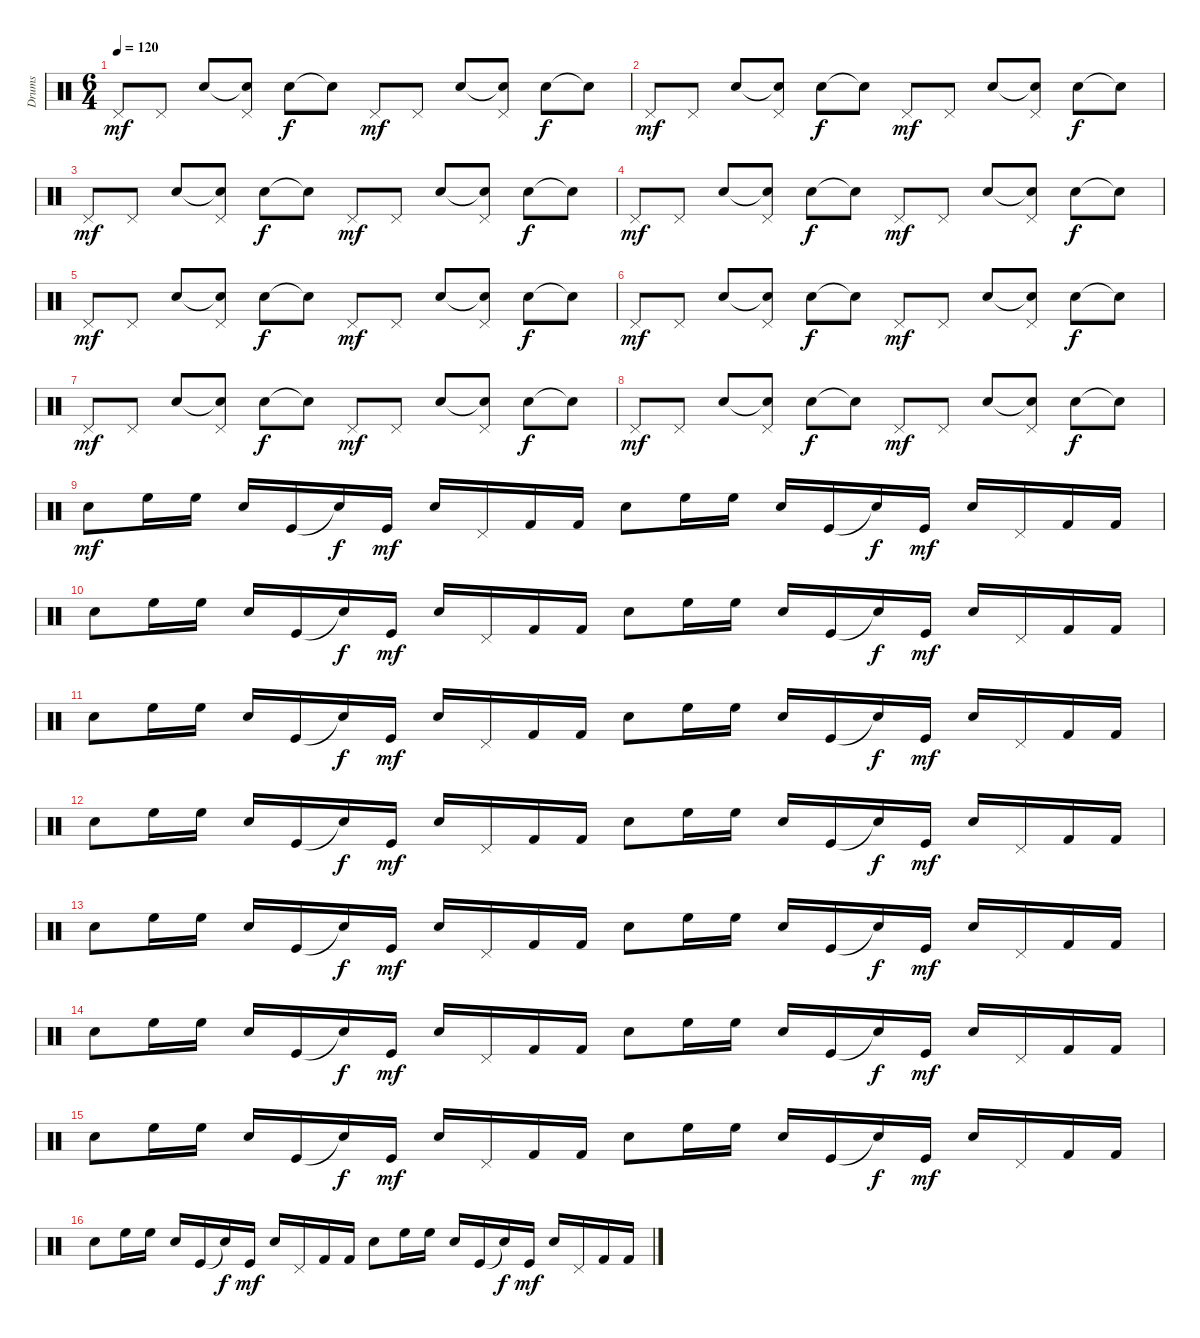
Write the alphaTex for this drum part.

\track ("Drums" "Drums") {instrument percussion}
\staff {score}
\articulation defaults
\ts (6 4)
\tempo 120
\clef neutral
\ks c "Pedal Hi-Hat (hit)".8{dy mf} "Pedal Hi-Hat (hit)".8 "Snare (hit) 2".8
("Snare (hit)"{t} "Pedal Hi-Hat (hit)").8 "Snare (hit) 2".8{dy f} "Snare (hit)"{t}.8 "Pedal Hi-Hat (hit)".8{dy mf} "Pedal Hi-Hat (hit)".8 "Snare (hit) 2".8 ("Snare (hit)"{t} "Pedal Hi-Hat (hit)").8 "Snare (hit) 2".8{dy f} "Snare (hit)"{t}.8 |
"Pedal Hi-Hat (hit)".8{dy mf} "Pedal Hi-Hat (hit)".8 "Snare (hit) 2".8 ("Snare (hit)"{t} "Pedal Hi-Hat (hit)").8 "Snare (hit) 2".8{dy f} "Snare (hit)"{t}.8 "Pedal Hi-Hat (hit)".8{dy mf} "Pedal Hi-Hat (hit)".8 "Snare (hit) 2".8 ("Snare (hit)"{t} "Pedal Hi-Hat (hit)").8 "Snare (hit) 2".8{dy f} "Snare (hit)"{t}.8 |
"Pedal Hi-Hat (hit)".8{dy mf} "Pedal Hi-Hat (hit)".8 "Snare (hit) 2".8 ("Snare (hit)"{t} "Pedal Hi-Hat (hit)").8 "Snare (hit) 2".8{dy f} "Snare (hit)"{t}.8 "Pedal Hi-Hat (hit)".8{dy mf} "Pedal Hi-Hat (hit)".8 "Snare (hit) 2".8 ("Snare (hit)"{t} "Pedal Hi-Hat (hit)").8 "Snare (hit) 2".8{dy f} "Snare (hit)"{t}.8 |
"Pedal Hi-Hat (hit)".8{dy mf} "Pedal Hi-Hat (hit)".8 "Snare (hit) 2".8 ("Snare (hit)"{t} "Pedal Hi-Hat (hit)").8 "Snare (hit) 2".8{dy f} "Snare (hit)"{t}.8 "Pedal Hi-Hat (hit)".8{dy mf} "Pedal Hi-Hat (hit)".8 "Snare (hit) 2".8 ("Snare (hit)"{t} "Pedal Hi-Hat (hit)").8 "Snare (hit) 2".8{dy f} "Snare (hit)"{t}.8 |
"Pedal Hi-Hat (hit)".8{dy mf} "Pedal Hi-Hat (hit)".8 "Snare (hit) 2".8 ("Snare (hit)"{t} "Pedal Hi-Hat (hit)").8 "Snare (hit) 2".8{dy f} "Snare (hit)"{t}.8 "Pedal Hi-Hat (hit)".8{dy mf} "Pedal Hi-Hat (hit)".8 "Snare (hit) 2".8 ("Snare (hit)"{t} "Pedal Hi-Hat (hit)").8 "Snare (hit) 2".8{dy f} "Snare (hit)"{t}.8 |
"Pedal Hi-Hat (hit)".8{dy mf} "Pedal Hi-Hat (hit)".8 "Snare (hit) 2".8 ("Snare (hit)"{t} "Pedal Hi-Hat (hit)").8 "Snare (hit) 2".8{dy f} "Snare (hit)"{t}.8 "Pedal Hi-Hat (hit)".8{dy mf} "Pedal Hi-Hat (hit)".8 "Snare (hit) 2".8 ("Snare (hit)"{t} "Pedal Hi-Hat (hit)").8 "Snare (hit) 2".8{dy f} "Snare (hit)"{t}.8 |
"Pedal Hi-Hat (hit)".8{dy mf} "Pedal Hi-Hat (hit)".8 "Snare (hit) 2".8 ("Snare (hit)"{t} "Pedal Hi-Hat (hit)").8 "Snare (hit) 2".8{dy f} "Snare (hit)"{t}.8 "Pedal Hi-Hat (hit)".8{dy mf} "Pedal Hi-Hat (hit)".8 "Snare (hit) 2".8 ("Snare (hit)"{t} "Pedal Hi-Hat (hit)").8 "Snare (hit) 2".8{dy f} "Snare (hit)"{t}.8 |
"Pedal Hi-Hat (hit)".8{dy mf} "Pedal Hi-Hat (hit)".8 "Snare (hit) 2".8 ("Snare (hit)"{t} "Pedal Hi-Hat (hit)").8 "Snare (hit) 2".8{dy f} "Snare (hit)"{t}.8 "Pedal Hi-Hat (hit)".8{dy mf} "Pedal Hi-Hat (hit)".8 "Snare (hit) 2".8 ("Snare (hit)"{t} "Pedal Hi-Hat (hit)").8 "Snare (hit) 2".8{dy f} "Snare (hit)"{t}.8 |
"Snare (hit) 2".8{dy mf} "High Floor Tom (hit)".16 "High Floor Tom (hit)".16 "Snare (hit) 2".16 "Kick (hit)".16 "Snare (hit)"{t}.16{dy f} "Kick (hit)".16{dy mf} "Snare (hit) 2".16 "Pedal Hi-Hat (hit)".16 "Kick (hit) 2".16 "Kick (hit) 2".16 "Snare (hit) 2".8 "High Floor Tom (hit)".16 "High Floor Tom (hit)".16 "Snare (hit) 2".16 "Kick (hit)".16 "Snare (hit)"{t}.16{dy f} "Kick (hit)".16{dy mf} "Snare (hit) 2".16 "Pedal Hi-Hat (hit)".16 "Kick (hit) 2".16 "Kick (hit) 2".16 |
"Snare (hit) 2".8 "High Floor Tom (hit)".16 "High Floor Tom (hit)".16 "Snare (hit) 2".16 "Kick (hit)".16 "Snare (hit)"{t}.16{dy f} "Kick (hit)".16{dy mf} "Snare (hit) 2".16 "Pedal Hi-Hat (hit)".16 "Kick (hit) 2".16 "Kick (hit) 2".16 "Snare (hit) 2".8 "High Floor Tom (hit)".16 "High Floor Tom (hit)".16 "Snare (hit) 2".16 "Kick (hit)".16 "Snare (hit)"{t}.16{dy f} "Kick (hit)".16{dy mf} "Snare (hit) 2".16 "Pedal Hi-Hat (hit)".16 "Kick (hit) 2".16 "Kick (hit) 2".16 |
"Snare (hit) 2".8 "High Floor Tom (hit)".16 "High Floor Tom (hit)".16 "Snare (hit) 2".16 "Kick (hit)".16 "Snare (hit)"{t}.16{dy f} "Kick (hit)".16{dy mf} "Snare (hit) 2".16 "Pedal Hi-Hat (hit)".16 "Kick (hit) 2".16 "Kick (hit) 2".16 "Snare (hit) 2".8 "High Floor Tom (hit)".16 "High Floor Tom (hit)".16 "Snare (hit) 2".16 "Kick (hit)".16 "Snare (hit)"{t}.16{dy f} "Kick (hit)".16{dy mf} "Snare (hit) 2".16 "Pedal Hi-Hat (hit)".16 "Kick (hit) 2".16 "Kick (hit) 2".16 |
"Snare (hit) 2".8 "High Floor Tom (hit)".16 "High Floor Tom (hit)".16 "Snare (hit) 2".16 "Kick (hit)".16 "Snare (hit)"{t}.16{dy f} "Kick (hit)".16{dy mf} "Snare (hit) 2".16 "Pedal Hi-Hat (hit)".16 "Kick (hit) 2".16 "Kick (hit) 2".16 "Snare (hit) 2".8 "High Floor Tom (hit)".16 "High Floor Tom (hit)".16 "Snare (hit) 2".16 "Kick (hit)".16 "Snare (hit)"{t}.16{dy f} "Kick (hit)".16{dy mf} "Snare (hit) 2".16 "Pedal Hi-Hat (hit)".16 "Kick (hit) 2".16 "Kick (hit) 2".16 |
"Snare (hit) 2".8 "High Floor Tom (hit)".16 "High Floor Tom (hit)".16 "Snare (hit) 2".16 "Kick (hit)".16 "Snare (hit)"{t}.16{dy f} "Kick (hit)".16{dy mf} "Snare (hit) 2".16 "Pedal Hi-Hat (hit)".16 "Kick (hit) 2".16 "Kick (hit) 2".16 "Snare (hit) 2".8 "High Floor Tom (hit)".16 "High Floor Tom (hit)".16 "Snare (hit) 2".16 "Kick (hit)".16 "Snare (hit)"{t}.16{dy f} "Kick (hit)".16{dy mf} "Snare (hit) 2".16 "Pedal Hi-Hat (hit)".16 "Kick (hit) 2".16 "Kick (hit) 2".16 |
"Snare (hit) 2".8 "High Floor Tom (hit)".16 "High Floor Tom (hit)".16 "Snare (hit) 2".16 "Kick (hit)".16 "Snare (hit)"{t}.16{dy f} "Kick (hit)".16{dy mf} "Snare (hit) 2".16 "Pedal Hi-Hat (hit)".16 "Kick (hit) 2".16 "Kick (hit) 2".16 "Snare (hit) 2".8 "High Floor Tom (hit)".16 "High Floor Tom (hit)".16 "Snare (hit) 2".16 "Kick (hit)".16 "Snare (hit)"{t}.16{dy f} "Kick (hit)".16{dy mf} "Snare (hit) 2".16 "Pedal Hi-Hat (hit)".16 "Kick (hit) 2".16 "Kick (hit) 2".16 |
"Snare (hit) 2".8 "High Floor Tom (hit)".16 "High Floor Tom (hit)".16 "Snare (hit) 2".16 "Kick (hit)".16 "Snare (hit)"{t}.16{dy f} "Kick (hit)".16{dy mf} "Snare (hit) 2".16 "Pedal Hi-Hat (hit)".16 "Kick (hit) 2".16 "Kick (hit) 2".16 "Snare (hit) 2".8 "High Floor Tom (hit)".16 "High Floor Tom (hit)".16 "Snare (hit) 2".16 "Kick (hit)".16 "Snare (hit)"{t}.16{dy f} "Kick (hit)".16{dy mf} "Snare (hit) 2".16 "Pedal Hi-Hat (hit)".16 "Kick (hit) 2".16 "Kick (hit) 2".16 |
"Snare (hit) 2".8 "High Floor Tom (hit)".16 "High Floor Tom (hit)".16 "Snare (hit) 2".16 "Kick (hit)".16 "Snare (hit)"{t}.16{dy f} "Kick (hit)".16{dy mf} "Snare (hit) 2".16 "Pedal Hi-Hat (hit)".16 "Kick (hit) 2".16 "Kick (hit) 2".16 "Snare (hit) 2".8 "High Floor Tom (hit)".16 "High Floor Tom (hit)".16 "Snare (hit) 2".16 "Kick (hit)".16 "Snare (hit)"{t}.16{dy f} "Kick (hit)".16{dy mf} "Snare (hit) 2".16 "Pedal Hi-Hat (hit)".16 "Kick (hit) 2".16 "Kick (hit) 2".16
